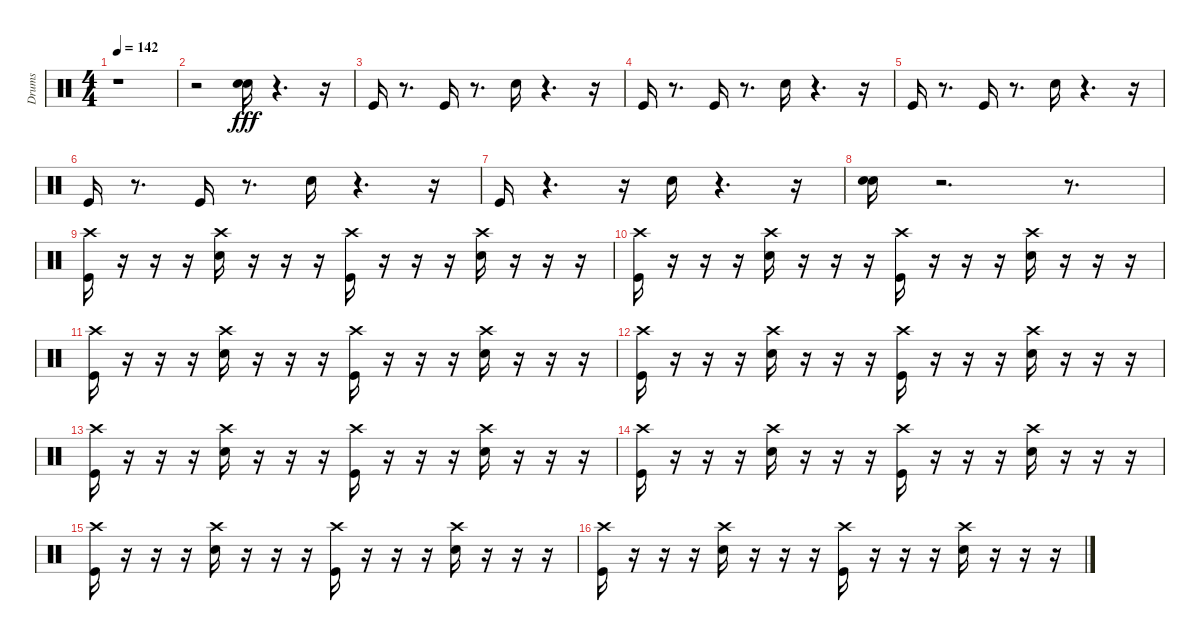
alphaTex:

\track ("Drums" "Drums") {instrument percussion}
\staff {score}
\articulation defaults
\ts (4 4)
\tempo 142
\clef neutral
\ks c
r.1{dy fff} |
r.2 ("Snare (hit) 2" "Electric Snare (hit)").16 r.4{d} r.16 |
"Kick (hit)".16 r.8{d} "Kick (hit)".16 r.8{d} "Snare (hit) 2".16 r.4{d} r.16 |
"Kick (hit)".16 r.8{d} "Kick (hit)".16 r.8{d} "Snare (hit) 2".16 r.4{d} r.16 |
"Kick (hit)".16 r.8{d} "Kick (hit)".16 r.8{d} "Snare (hit) 2".16 r.4{d} r.16 |
"Kick (hit)".16 r.8{d} "Kick (hit)".16 r.8{d} "Snare (hit) 2".16 r.4{d} r.16 |
"Kick (hit)".16 r.4{d} r.16 "Snare (hit) 2".16 r.4{d} r.16 |
("Snare (hit) 2" "Electric Snare (hit)").16 r.2{d} r.8{d} |
("Kick (hit)" "Crash high (hit)").16 r.16 r.16 r.16 ("Snare (hit) 2" "Crash high (hit)").16 r.16 r.16 r.16 ("Kick (hit)" "Crash high (hit)").16 r.16 r.16 r.16 ("Snare (hit) 2" "Crash high (hit)").16 r.16 r.16 r.16 |
("Kick (hit)" "Crash high (hit)").16 r.16 r.16 r.16 ("Snare (hit) 2" "Crash high (hit)").16 r.16 r.16 r.16 ("Kick (hit)" "Crash high (hit)").16 r.16 r.16 r.16 ("Snare (hit) 2" "Crash high (hit)").16 r.16 r.16 r.16 |
("Kick (hit)" "Crash high (hit)").16 r.16 r.16 r.16 ("Snare (hit) 2" "Crash high (hit)").16 r.16 r.16 r.16 ("Kick (hit)" "Crash high (hit)").16 r.16 r.16 r.16 ("Snare (hit) 2" "Crash high (hit)").16 r.16 r.16 r.16 |
("Kick (hit)" "Crash high (hit)").16 r.16 r.16 r.16 ("Snare (hit) 2" "Crash high (hit)").16 r.16 r.16 r.16 ("Kick (hit)" "Crash high (hit)").16 r.16 r.16 r.16 ("Snare (hit) 2" "Crash high (hit)").16 r.16 r.16 r.16 |
("Kick (hit)" "Crash high (hit)").16 r.16 r.16 r.16 ("Snare (hit) 2" "Crash high (hit)").16 r.16 r.16 r.16 ("Kick (hit)" "Crash high (hit)").16 r.16 r.16 r.16 ("Snare (hit) 2" "Crash high (hit)").16 r.16 r.16 r.16 |
("Kick (hit)" "Crash high (hit)").16 r.16 r.16 r.16 ("Snare (hit) 2" "Crash high (hit)").16 r.16 r.16 r.16 ("Kick (hit)" "Crash high (hit)").16 r.16 r.16 r.16 ("Snare (hit) 2" "Crash high (hit)").16 r.16 r.16 r.16 |
("Kick (hit)" "Crash high (hit)").16 r.16 r.16 r.16 ("Snare (hit) 2" "Crash high (hit)").16 r.16 r.16 r.16 ("Kick (hit)" "Crash high (hit)").16 r.16 r.16 r.16 ("Snare (hit) 2" "Crash high (hit)").16 r.16 r.16 r.16 |
("Kick (hit)" "Crash high (hit)").16 r.16 r.16 r.16 ("Snare (hit) 2" "Crash high (hit)").16 r.16 r.16 r.16 ("Kick (hit)" "Crash high (hit)").16 r.16 r.16 r.16 ("Snare (hit) 2" "Crash high (hit)").16 r.16 r.16 r.16
